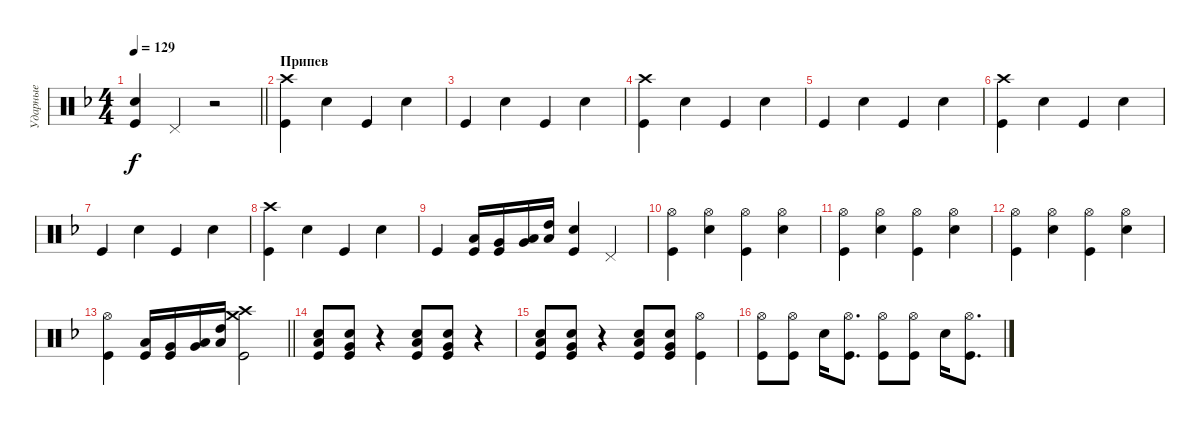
\track ("Ударные" "Ударные") {instrument percussion}
\staff {score}
\articulation defaults
\ts (4 4)
\tempo 129
\clef neutral
\barLineRight lightlight
\ks dminor
("Snare (hit) 2" "Kick (hit)").4{dy f} "Pedal Hi-Hat (hit)".4 r.2 |
\section ("" "Припев")
("Crash high (hit)" "Kick (hit)").4 "Snare (hit) 2".4 "Kick (hit)".4 "Snare (hit) 2".4 |
"Kick (hit)".4 "Snare (hit) 2".4 "Kick (hit)".4 "Snare (hit) 2".4 |
("Crash high (hit)" "Kick (hit)").4 "Snare (hit) 2".4 "Kick (hit)".4 "Snare (hit) 2".4 |
"Kick (hit)".4 "Snare (hit) 2".4 "Kick (hit)".4 "Snare (hit) 2".4 |
("Crash high (hit)" "Kick (hit)").4 "Snare (hit) 2".4 "Kick (hit)".4 "Snare (hit) 2".4 |
"Kick (hit)".4 "Snare (hit) 2".4 "Kick (hit)".4 "Snare (hit) 2".4 |
("Crash high (hit)" "Kick (hit)").4 "Snare (hit) 2".4 "Kick (hit)".4 "Snare (hit) 2".4 |
"Kick (hit)".4 ("Low Floor Tom (hit)" "Kick (hit)").16 ("Very Low Tom (hit)" "Kick (hit)").16 ("Low Tom (hit)" "Very Low Tom (hit)").16 ("High Tom (hit)" "Low Tom (hit)").16 ("Kick (hit)" "Snare (hit) 2").4 "Pedal Hi-Hat (hit)".4 |
("Kick (hit)" "Hi-Hat (open)").4 ("Snare (hit) 2" "Hi-Hat (open)").4 ("Kick (hit)" "Hi-Hat (open)").4 ("Snare (hit) 2" "Hi-Hat (open)").4 |
("Kick (hit)" "Hi-Hat (open)").4 ("Snare (hit) 2" "Hi-Hat (open)").4 ("Kick (hit)" "Hi-Hat (open)").4 ("Snare (hit) 2" "Hi-Hat (open)").4 |
("Kick (hit)" "Hi-Hat (open)").4 ("Snare (hit) 2" "Hi-Hat (open)").4 ("Kick (hit)" "Hi-Hat (open)").4 ("Snare (hit) 2" "Hi-Hat (open)").4 |
\barLineRight lightlight
("Kick (hit)" "Hi-Hat (open)").4 ("Low Floor Tom (hit)" "Kick (hit)").16 ("Very Low Tom (hit)" "Kick (hit)").16 ("Low Tom (hit)" "Very Low Tom (hit)").16 ("High Tom (hit)" "Low Tom (hit)").16 ("Kick (hit)" "Crash medium (hit)" "Crash high (hit)").2 |
("Snare (hit) 2" "Low Floor Tom (hit)" "Kick (hit)").8 ("Snare (hit) 2" "Very Low Tom (hit)" "Kick (hit)").8 r.4 ("Snare (hit) 2" "Low Floor Tom (hit)" "Kick (hit)").8 ("Snare (hit) 2" "Very Low Tom (hit)" "Kick (hit)").8 r.4 |
("Snare (hit) 2" "Low Floor Tom (hit)" "Kick (hit)").8 ("Snare (hit) 2" "Very Low Tom (hit)" "Kick (hit)").8 r.4 ("Snare (hit) 2" "Low Floor Tom (hit)" "Kick (hit)").8 ("Snare (hit) 2" "Very Low Tom (hit)" "Kick (hit)").8 ("Hi-Hat (open)" "Kick (hit)").4 |
("Kick (hit)" "Hi-Hat (open)").8 ("Kick (hit)" "Hi-Hat (open)").8 "Snare (hit) 2".16 ("Kick (hit)" "Hi-Hat (open)").8{d} ("Kick (hit)" "Hi-Hat (open)").8 ("Kick (hit)" "Hi-Hat (open)").8 "Snare (hit) 2".16 ("Kick (hit)" "Hi-Hat (open)").8{d}
